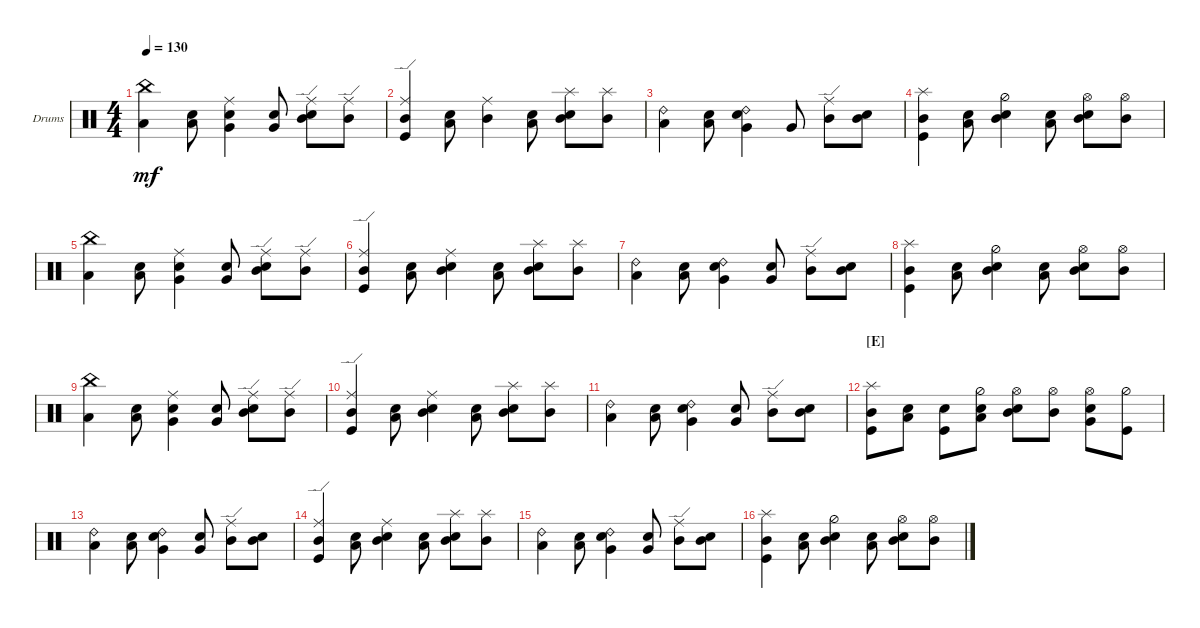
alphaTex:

\defaultSystemsLayout 4
\bracketExtendMode groupsimilarinstruments
\firstSystemTrackNameOrientation horizontal
\otherSystemsTrackNameOrientation horizontal
\track ("Drumkit" "Drums") {instrument percussion}
\staff {score}
\articulation defaults
\ts (4 4)
\tempo 130
\clef neutral
\ks c
("Low Tom (hit)" "China (hit)").4{dy mf} ("Low Tom (hit)" "Snare (hit) 2").8 ("Very Low Tom (hit)" "Snare (hit) 2" "Ride (middle)").4 ("Very Low Tom (hit)" "Snare (hit) 2").8 ("Mid Tom (hit)" "Snare (hit) 2" "Ride (edge)").8 ("Mid Tom (hit)" "Ride (edge)").8 |
("Mid Tom (hit)" "Kick (hit)" "Ride (edge)").4 ("Low Tom (hit)" "Snare (hit) 2").8 ("Mid Tom (hit)" "Ride (middle)").4 ("Low Tom (hit)" "Snare (hit) 2").8 ("Mid Tom (hit)" "Snare (hit) 2" "Splash (hit)").8 ("Mid Tom (hit)" "Splash (hit)").8 |
("Low Tom (hit)" "Ride (bell) 2").4 ("Low Tom (hit)" "Snare (hit) 2").8 ("Very Low Tom (hit)" "Snare (hit) 2" "Ride (bell) 2").4 "Very Low Tom (hit)".8 ("Mid Tom (hit)" "Ride (edge)").8 ("Mid Tom (hit)" "Snare (hit) 2").8 |
("Mid Tom (hit)" "Kick (hit)" "Splash (hit)").4 ("Low Tom (hit)" "Snare (hit) 2").8 ("Mid Tom (hit)" "Snare (hit) 2" "Hi-Hat (half)").4 ("Low Tom (hit)" "Snare (hit) 2").8 ("Mid Tom (hit)" "Snare (hit) 2" "Hi-Hat (open)").8 ("Mid Tom (hit)" "Hi-Hat (open)").8 |
("Low Tom (hit)" "China (hit)").4 ("Low Tom (hit)" "Snare (hit) 2").8 ("Very Low Tom (hit)" "Snare (hit) 2" "Ride (middle)").4 ("Very Low Tom (hit)" "Snare (hit) 2").8 ("Mid Tom (hit)" "Snare (hit) 2" "Ride (edge)").8 ("Mid Tom (hit)" "Ride (edge)").8 |
("Mid Tom (hit)" "Kick (hit)" "Ride (edge)").4 ("Low Tom (hit)" "Snare (hit) 2").8 ("Mid Tom (hit)" "Snare (hit) 2" "Ride (middle)").4 ("Low Tom (hit)" "Snare (hit) 2").8 ("Mid Tom (hit)" "Snare (hit) 2" "Splash (hit)").8 ("Mid Tom (hit)" "Splash (hit)").8 |
("Low Tom (hit)" "Ride (bell) 2").4 ("Low Tom (hit)" "Snare (hit) 2").8 ("Very Low Tom (hit)" "Snare (hit) 2" "Ride (bell) 2").4 ("Very Low Tom (hit)" "Snare (hit) 2").8 ("Mid Tom (hit)" "Ride (edge)").8 ("Mid Tom (hit)" "Snare (hit) 2").8 |
("Mid Tom (hit)" "Kick (hit)" "Splash (hit)").4 ("Low Tom (hit)" "Snare (hit) 2").8 ("Mid Tom (hit)" "Snare (hit) 2" "Hi-Hat (half)").4 ("Low Tom (hit)" "Snare (hit) 2").8 ("Mid Tom (hit)" "Snare (hit) 2" "Hi-Hat (open)").8 ("Mid Tom (hit)" "Hi-Hat (open)").8 |
("Low Tom (hit)" "China (hit)").4 ("Low Tom (hit)" "Snare (hit) 2").8 ("Very Low Tom (hit)" "Snare (hit) 2" "Ride (middle)").4 ("Very Low Tom (hit)" "Snare (hit) 2").8 ("Mid Tom (hit)" "Snare (hit) 2" "Ride (edge)").8 ("Mid Tom (hit)" "Ride (edge)").8 |
("Mid Tom (hit)" "Kick (hit)" "Ride (edge)").4 ("Low Tom (hit)" "Snare (hit) 2").8 ("Mid Tom (hit)" "Snare (hit) 2" "Ride (middle)").4 ("Low Tom (hit)" "Snare (hit) 2").8 ("Mid Tom (hit)" "Snare (hit) 2" "Splash (hit)").8 ("Mid Tom (hit)" "Splash (hit)").8 |
("Low Tom (hit)" "Ride (bell) 2").4 ("Low Tom (hit)" "Snare (hit) 2").8 ("Very Low Tom (hit)" "Snare (hit) 2" "Ride (bell) 2").4 ("Very Low Tom (hit)" "Snare (hit) 2").8 ("Mid Tom (hit)" "Ride (edge)").8 ("Mid Tom (hit)" "Snare (hit) 2").8 |
\section ("E" "")
("Mid Tom (hit)" "Kick (hit)" "Splash (hit)").8 ("Low Tom (hit)" "Snare (hit) 2").8 ("Snare (hit) 2" "Kick (hit)").8 ("Low Tom (hit)" "Snare (hit) 2" "Hi-Hat (half)").8 ("Mid Tom (hit)" "Snare (hit) 2" "Hi-Hat (open)").8 ("Mid Tom (hit)" "Hi-Hat (open)").8 ("Snare (hit) 2" "Very Low Tom (hit)" "Hi-Hat (open)").8 ("Kick (hit)" "Hi-Hat (half)").8 |
("Low Tom (hit)" "Ride (bell) 2").4 ("Low Tom (hit)" "Snare (hit) 2").8 ("Very Low Tom (hit)" "Snare (hit) 2" "Ride (bell) 2").4 ("Very Low Tom (hit)" "Snare (hit) 2").8 ("Mid Tom (hit)" "Ride (edge)").8 ("Mid Tom (hit)" "Snare (hit) 2").8 |
("Mid Tom (hit)" "Kick (hit)" "Ride (edge)").4 ("Low Tom (hit)" "Snare (hit) 2").8 ("Mid Tom (hit)" "Snare (hit) 2" "Ride (middle)").4 ("Low Tom (hit)" "Snare (hit) 2").8 ("Mid Tom (hit)" "Snare (hit) 2" "Splash (hit)").8 ("Mid Tom (hit)" "Splash (hit)").8 |
("Low Tom (hit)" "Ride (bell) 2").4 ("Low Tom (hit)" "Snare (hit) 2").8 ("Very Low Tom (hit)" "Snare (hit) 2" "Ride (bell) 2").4 ("Very Low Tom (hit)" "Snare (hit) 2").8 ("Mid Tom (hit)" "Ride (edge)").8 ("Mid Tom (hit)" "Snare (hit) 2").8 |
("Mid Tom (hit)" "Kick (hit)" "Splash (hit)").4 ("Low Tom (hit)" "Snare (hit) 2").8 ("Mid Tom (hit)" "Snare (hit) 2" "Hi-Hat (half)").4 ("Low Tom (hit)" "Snare (hit) 2").8 ("Mid Tom (hit)" "Snare (hit) 2" "Hi-Hat (open)").8 ("Mid Tom (hit)" "Hi-Hat (open)").8
